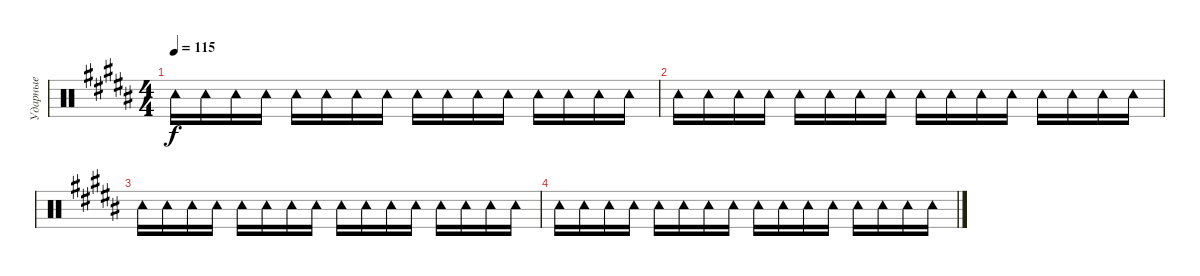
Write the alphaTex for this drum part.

\track ("Ударные" "Ударные") {instrument percussion}
\staff {score}
\articulation defaults
\ts (4 4)
\tempo 115
\clef neutral
\ks b "Tambourine (hit)".16{dy f} "Tambourine (hit)".16 "Tambourine (hit)".16 "Tambourine (hit)".16 "Tambourine (hit)".16 "Tambourine (hit)".16 "Tambourine (hit)".16 "Tambourine (hit)".16 "Tambourine (hit)".16 "Tambourine (hit)".16 "Tambourine (hit)".16 "Tambourine (hit)".16 "Tambourine (hit)".16 "Tambourine (hit)".16 "Tambourine (hit)".16 "Tambourine (hit)".16
|
"Tambourine (hit)".16 "Tambourine (hit)".16 "Tambourine (hit)".16 "Tambourine (hit)".16 "Tambourine (hit)".16 "Tambourine (hit)".16 "Tambourine (hit)".16 "Tambourine (hit)".16 "Tambourine (hit)".16 "Tambourine (hit)".16 "Tambourine (hit)".16 "Tambourine (hit)".16 "Tambourine (hit)".16 "Tambourine (hit)".16 "Tambourine (hit)".16 "Tambourine (hit)".16 |
"Tambourine (hit)".16 "Tambourine (hit)".16 "Tambourine (hit)".16 "Tambourine (hit)".16 "Tambourine (hit)".16 "Tambourine (hit)".16 "Tambourine (hit)".16 "Tambourine (hit)".16 "Tambourine (hit)".16 "Tambourine (hit)".16 "Tambourine (hit)".16 "Tambourine (hit)".16 "Tambourine (hit)".16 "Tambourine (hit)".16 "Tambourine (hit)".16 "Tambourine (hit)".16 |
"Tambourine (hit)".16 "Tambourine (hit)".16 "Tambourine (hit)".16 "Tambourine (hit)".16 "Tambourine (hit)".16 "Tambourine (hit)".16 "Tambourine (hit)".16 "Tambourine (hit)".16 "Tambourine (hit)".16 "Tambourine (hit)".16 "Tambourine (hit)".16 "Tambourine (hit)".16 "Tambourine (hit)".16 "Tambourine (hit)".16 "Tambourine (hit)".16 "Tambourine (hit)".16
